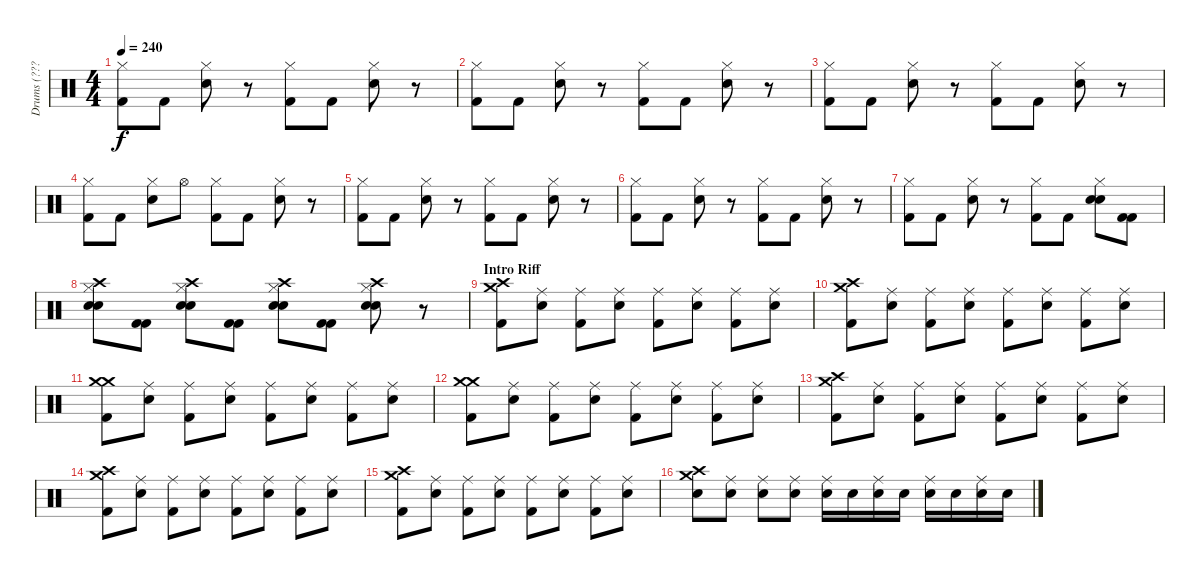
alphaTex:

\track ("Drums (????)" "Drums (???") {instrument percussion}
\staff {score}
\articulation defaults
\ts (4 4)
\tempo 240
\clef neutral
\ks c
("Hi-Hat (closed)" "Kick (hit) 2").8{dy f} "Kick (hit) 2".8 ("Hi-Hat (closed)" "Snare (hit) 2").8 r.8 ("Hi-Hat (closed)" "Kick (hit) 2").8 "Kick (hit) 2".8 ("Hi-Hat (closed)" "Snare (hit) 2").8 r.8 |
("Hi-Hat (closed)" "Kick (hit) 2").8 "Kick (hit) 2".8 ("Hi-Hat (closed)" "Snare (hit) 2").8 r.8 ("Hi-Hat (closed)" "Kick (hit) 2").8 "Kick (hit) 2".8 ("Hi-Hat (closed)" "Snare (hit) 2").8 r.8 |
("Hi-Hat (closed)" "Kick (hit) 2").8 "Kick (hit) 2".8 ("Hi-Hat (closed)" "Snare (hit) 2").8 r.8 ("Hi-Hat (closed)" "Kick (hit) 2").8 "Kick (hit) 2".8 ("Hi-Hat (closed)" "Snare (hit) 2").8 r.8 |
("Hi-Hat (closed)" "Kick (hit) 2").8 "Kick (hit) 2".8 ("Hi-Hat (closed)" "Snare (hit) 2").8 "Hi-Hat (open)".8 ("Hi-Hat (closed)" "Kick (hit) 2").8 "Kick (hit) 2".8 ("Hi-Hat (closed)" "Snare (hit) 2").8 r.8 |
("Hi-Hat (closed)" "Kick (hit) 2").8 "Kick (hit) 2".8 ("Hi-Hat (closed)" "Snare (hit) 2").8 r.8 ("Hi-Hat (closed)" "Kick (hit) 2").8 "Kick (hit) 2".8 ("Hi-Hat (closed)" "Snare (hit) 2").8 r.8 |
("Hi-Hat (closed)" "Kick (hit) 2").8 "Kick (hit) 2".8 ("Hi-Hat (closed)" "Snare (hit) 2").8 r.8 ("Hi-Hat (closed)" "Kick (hit) 2").8 "Kick (hit) 2".8 ("Hi-Hat (closed)" "Snare (hit) 2").8 r.8 |
("Hi-Hat (closed)" "Kick (hit) 2").8 "Kick (hit) 2".8 ("Hi-Hat (closed)" "Snare (hit) 2").8 r.8 ("Hi-Hat (closed)" "Kick (hit) 2").8 "Kick (hit) 2".8 ("Hi-Hat (closed)" "Snare (hit) 2" "Snare (hit) 2").8 ("Kick (hit) 2" "Kick (hit) 2").8 |
("Hi-Hat (closed)" "Snare (hit) 2" "Snare (hit) 2" "Crash high (hit)").8 ("Kick (hit) 2" "Kick (hit) 2").8 ("Hi-Hat (closed)" "Snare (hit) 2" "Snare (hit) 2" "Crash high (hit)").8 ("Kick (hit) 2" "Kick (hit) 2").8 ("Hi-Hat (closed)" "Snare (hit) 2" "Snare (hit) 2" "Crash high (hit)").8 ("Kick (hit) 2" "Kick (hit) 2").8 ("Hi-Hat (closed)" "Snare (hit) 2" "Snare (hit) 2" "Crash high (hit)").8 r.8 |
\section ("" "Intro Riff")
("Crash medium (hit)" "Crash high (hit)" "Kick (hit) 2").8 ("Ride (middle)" "Snare (hit) 2").8 ("Ride (middle)" "Kick (hit) 2").8 ("Ride (middle)" "Snare (hit) 2").8 ("Ride (middle)" "Kick (hit) 2").8 ("Ride (middle)" "Snare (hit) 2").8 ("Ride (middle)" "Kick (hit) 2").8 ("Ride (middle)" "Snare (hit) 2").8 |
("Crash medium (hit)" "Crash high (hit)" "Kick (hit) 2").8 ("Ride (middle)" "Snare (hit) 2").8 ("Ride (middle)" "Kick (hit) 2").8 ("Ride (middle)" "Snare (hit) 2").8 ("Ride (middle)" "Kick (hit) 2").8 ("Ride (middle)" "Snare (hit) 2").8 ("Ride (middle)" "Kick (hit) 2").8 ("Ride (middle)" "Snare (hit) 2").8 |
("Crash medium (hit)" "Crash medium (hit)" "Kick (hit) 2").8 ("Ride (middle)" "Snare (hit) 2").8 ("Ride (middle)" "Kick (hit) 2").8 ("Ride (middle)" "Snare (hit) 2").8 ("Ride (middle)" "Kick (hit) 2").8 ("Ride (middle)" "Snare (hit) 2").8 ("Ride (middle)" "Kick (hit) 2").8 ("Ride (middle)" "Snare (hit) 2").8 |
("Crash medium (hit)" "Crash medium (hit)" "Kick (hit) 2").8 ("Ride (middle)" "Snare (hit) 2").8 ("Ride (middle)" "Kick (hit) 2").8 ("Ride (middle)" "Snare (hit) 2").8 ("Ride (middle)" "Kick (hit) 2").8 ("Ride (middle)" "Snare (hit) 2").8 ("Ride (middle)" "Kick (hit) 2").8 ("Ride (middle)" "Snare (hit) 2").8 |
("Crash medium (hit)" "Crash high (hit)" "Kick (hit) 2").8 ("Ride (middle)" "Snare (hit) 2").8 ("Ride (middle)" "Kick (hit) 2").8 ("Ride (middle)" "Snare (hit) 2").8 ("Ride (middle)" "Kick (hit) 2").8 ("Ride (middle)" "Snare (hit) 2").8 ("Ride (middle)" "Kick (hit) 2").8 ("Ride (middle)" "Snare (hit) 2").8 |
("Crash medium (hit)" "Crash high (hit)" "Kick (hit) 2").8 ("Ride (middle)" "Snare (hit) 2").8 ("Ride (middle)" "Kick (hit) 2").8 ("Ride (middle)" "Snare (hit) 2").8 ("Ride (middle)" "Kick (hit) 2").8 ("Ride (middle)" "Snare (hit) 2").8 ("Ride (middle)" "Kick (hit) 2").8 ("Ride (middle)" "Snare (hit) 2").8 |
("Crash medium (hit)" "Crash high (hit)" "Kick (hit) 2").8 ("Ride (middle)" "Snare (hit) 2").8 ("Ride (middle)" "Kick (hit) 2").8 ("Ride (middle)" "Snare (hit) 2").8 ("Ride (middle)" "Kick (hit) 2").8 ("Ride (middle)" "Snare (hit) 2").8 ("Ride (middle)" "Kick (hit) 2").8 ("Ride (middle)" "Snare (hit) 2").8 |
("Crash medium (hit)" "Crash high (hit)" "Snare (hit) 2").8 ("Ride (middle)" "Snare (hit) 2").8 ("Ride (middle)" "Snare (hit) 2").8 ("Ride (middle)" "Snare (hit) 2").8 ("Ride (middle)" "Snare (hit) 2").16 "Snare (hit) 2".16 ("Ride (middle)" "Snare (hit) 2").16 "Snare (hit) 2".16 ("Ride (middle)" "Snare (hit) 2").16 "Snare (hit) 2".16 ("Ride (middle)" "Snare (hit) 2").16 "Snare (hit) 2".16
